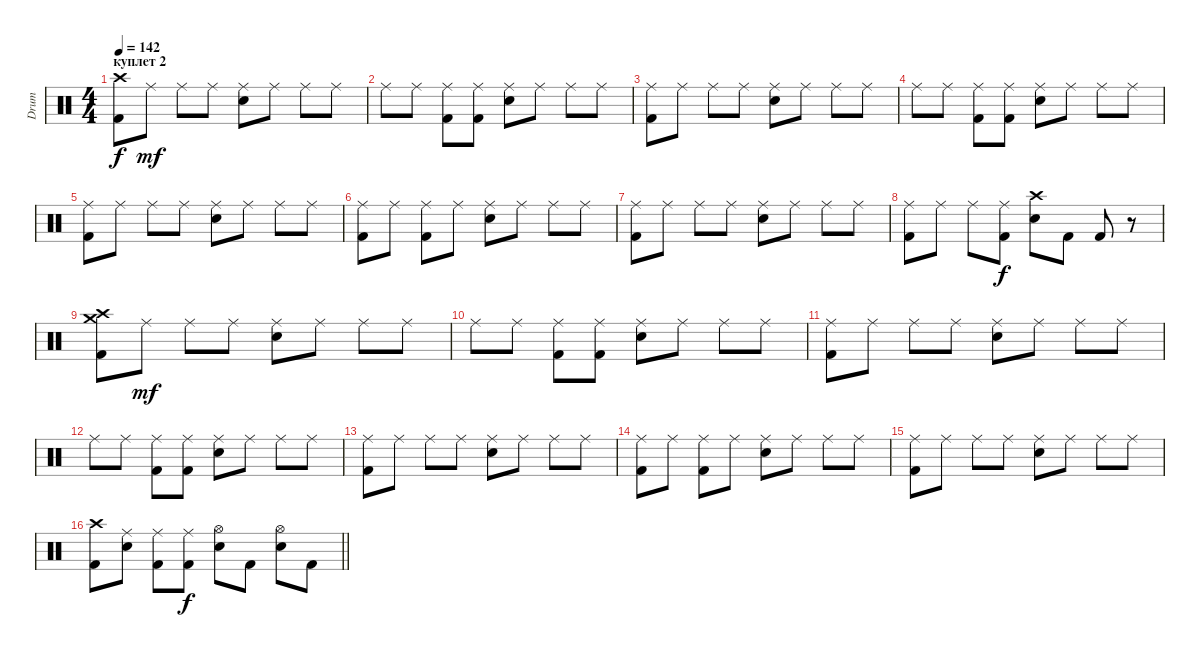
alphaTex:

\track ("Drum" "Drum") {instrument percussion}
\staff {score}
\articulation defaults
\ts (4 4)
\section ("" "куплет 2")
\tempo 142
\clef neutral
\ks c
("Crash high (hit)" "Kick (hit) 2").8{dy f} "Ride (middle)".8{dy mf} "Ride (middle)".8 "Ride (middle)".8 ("Ride (middle)" "Snare (hit) 2").8 "Ride (middle)".8 "Ride (middle)".8 "Ride (middle)".8 |
"Ride (middle)".8 "Ride (middle)".8 ("Ride (middle)" "Kick (hit) 2").8 ("Ride (middle)" "Kick (hit) 2").8 ("Ride (middle)" "Snare (hit) 2").8 "Ride (middle)".8 "Ride (middle)".8 "Ride (middle)".8 |
("Ride (middle)" "Kick (hit) 2").8 "Ride (middle)".8 "Ride (middle)".8 "Ride (middle)".8 ("Ride (middle)" "Snare (hit) 2").8 "Ride (middle)".8 "Ride (middle)".8 "Ride (middle)".8 |
"Ride (middle)".8 "Ride (middle)".8 ("Ride (middle)" "Kick (hit) 2").8 ("Ride (middle)" "Kick (hit) 2").8 ("Ride (middle)" "Snare (hit) 2").8 "Ride (middle)".8 "Ride (middle)".8 "Ride (middle)".8 |
("Ride (middle)" "Kick (hit) 2").8 "Ride (middle)".8 "Ride (middle)".8 "Ride (middle)".8 ("Ride (middle)" "Snare (hit) 2").8 "Ride (middle)".8 "Ride (middle)".8 "Ride (middle)".8 |
("Ride (middle)" "Kick (hit) 2").8 "Ride (middle)".8 ("Ride (middle)" "Kick (hit) 2").8 "Ride (middle)".8 ("Ride (middle)" "Snare (hit) 2").8 "Ride (middle)".8 "Ride (middle)".8 "Ride (middle)".8 |
("Ride (middle)" "Kick (hit) 2").8 "Ride (middle)".8 "Ride (middle)".8 "Ride (middle)".8 ("Ride (middle)" "Snare (hit) 2").8 "Ride (middle)".8 "Ride (middle)".8 "Ride (middle)".8 |
("Ride (middle)" "Kick (hit) 2").8 "Ride (middle)".8 "Ride (middle)".8 ("Ride (middle)" "Kick (hit) 2").8{dy f} ("Crash high (hit)" "Snare (hit) 2").8 "Kick (hit) 2".8 "Kick (hit) 2".8 r.8 |
("Crash medium (hit)" "Crash high (hit)" "Kick (hit) 2").8 "Ride (middle)".8{dy mf} "Ride (middle)".8 "Ride (middle)".8 ("Ride (middle)" "Snare (hit) 2").8 "Ride (middle)".8 "Ride (middle)".8 "Ride (middle)".8 |
"Ride (middle)".8 "Ride (middle)".8 ("Ride (middle)" "Kick (hit) 2").8 ("Ride (middle)" "Kick (hit) 2").8 ("Ride (middle)" "Snare (hit) 2").8 "Ride (middle)".8 "Ride (middle)".8 "Ride (middle)".8 |
("Ride (middle)" "Kick (hit) 2").8 "Ride (middle)".8 "Ride (middle)".8 "Ride (middle)".8 ("Ride (middle)" "Snare (hit) 2").8 "Ride (middle)".8 "Ride (middle)".8 "Ride (middle)".8 |
"Ride (middle)".8 "Ride (middle)".8 ("Ride (middle)" "Kick (hit) 2").8 ("Ride (middle)" "Kick (hit) 2").8 ("Ride (middle)" "Snare (hit) 2").8 "Ride (middle)".8 "Ride (middle)".8 "Ride (middle)".8 |
("Ride (middle)" "Kick (hit) 2").8 "Ride (middle)".8 "Ride (middle)".8 "Ride (middle)".8 ("Ride (middle)" "Snare (hit) 2").8 "Ride (middle)".8 "Ride (middle)".8 "Ride (middle)".8 |
("Ride (middle)" "Kick (hit) 2").8 "Ride (middle)".8 ("Ride (middle)" "Kick (hit) 2").8 "Ride (middle)".8 ("Ride (middle)" "Snare (hit) 2").8 "Ride (middle)".8 "Ride (middle)".8 "Ride (middle)".8 |
("Ride (middle)" "Kick (hit) 2").8 "Ride (middle)".8 "Ride (middle)".8 "Ride (middle)".8 ("Ride (middle)" "Snare (hit) 2").8 "Ride (middle)".8 "Ride (middle)".8 "Ride (middle)".8 |
\barLineRight lightlight
("Crash high (hit)" "Kick (hit) 2").8 ("Ride (middle)" "Snare (hit) 2").8 ("Ride (middle)" "Kick (hit) 2").8 ("Ride (middle)" "Kick (hit) 2").8{dy f} ("Hi-Hat (open)" "Snare (hit) 2").8 "Kick (hit) 2".8 ("Hi-Hat (open)" "Snare (hit) 2").8 "Kick (hit) 2".8
